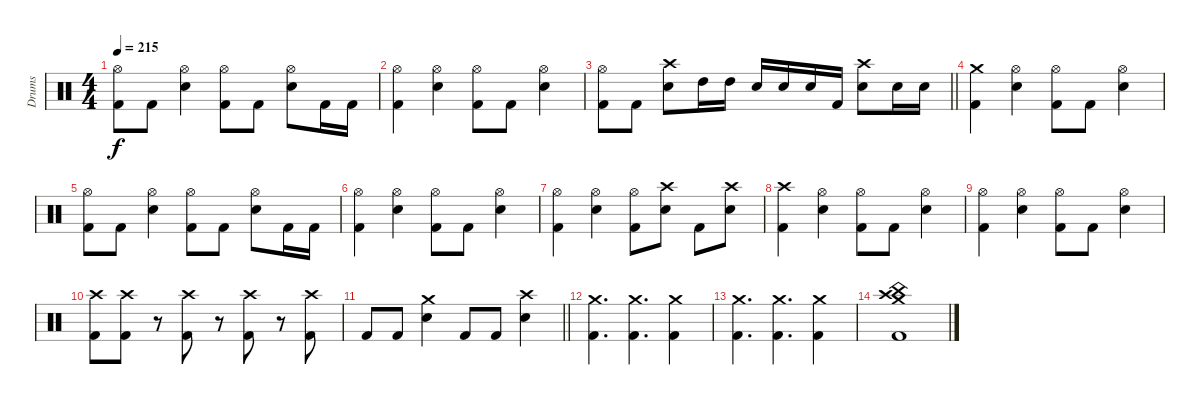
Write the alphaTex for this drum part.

\track ("Drums" "Drums") {instrument percussion}
\staff {score}
\articulation defaults
\ts (4 4)
\tempo 215
\clef neutral
\ks c
("Hi-Hat (open)" "Kick (hit) 2").8{dy f} "Kick (hit) 2".8 ("Hi-Hat (open)" "Snare (hit) 2").4 ("Hi-Hat (open)" "Kick (hit) 2").8 "Kick (hit) 2".8 ("Hi-Hat (open)" "Snare (hit) 2").8 "Kick (hit) 2".16 "Kick (hit) 2".16 |
("Hi-Hat (open)" "Kick (hit) 2").4 ("Hi-Hat (open)" "Snare (hit) 2").4 ("Hi-Hat (open)" "Kick (hit) 2").8 "Kick (hit) 2".8 ("Hi-Hat (open)" "Snare (hit) 2").4 |
\barLineRight lightlight
("Hi-Hat (open)" "Kick (hit) 2").8 "Kick (hit) 2".8 ("Crash high (hit)" "Snare (hit) 2").8 "High Tom (hit)".16 "High Tom (hit)".16 "Snare (hit) 2".16 "Snare (hit) 2".16 "Snare (hit) 2".16 "Kick (hit) 2".16 ("Crash high (hit)" "Snare (hit) 2").8 "Snare (hit) 2".16 "Snare (hit) 2".16 |
("Crash medium (hit)" "Kick (hit) 2").4 ("Hi-Hat (open)" "Snare (hit) 2").4 ("Hi-Hat (open)" "Kick (hit) 2").8 "Kick (hit) 2".8 ("Hi-Hat (open)" "Snare (hit) 2").4 |
("Hi-Hat (open)" "Kick (hit) 2").8 "Kick (hit) 2".8 ("Hi-Hat (open)" "Snare (hit) 2").4 ("Hi-Hat (open)" "Kick (hit) 2").8 "Kick (hit) 2".8 ("Hi-Hat (open)" "Snare (hit) 2").8 "Kick (hit) 2".16 "Kick (hit) 2".16 |
("Hi-Hat (open)" "Kick (hit) 2").4 ("Hi-Hat (open)" "Snare (hit) 2").4 ("Hi-Hat (open)" "Kick (hit) 2").8 "Kick (hit) 2".8 ("Hi-Hat (open)" "Snare (hit) 2").4 |
("Hi-Hat (open)" "Kick (hit) 2").4 ("Hi-Hat (open)" "Snare (hit) 2").4 ("Hi-Hat (open)" "Kick (hit) 2").8 ("Crash high (hit)" "Snare (hit) 2").8 "Kick (hit) 2".8 ("Crash high (hit)" "Snare (hit) 2").8 |
("Crash high (hit)" "Kick (hit) 2").4 ("Hi-Hat (open)" "Snare (hit) 2").4 ("Hi-Hat (open)" "Kick (hit) 2").8 "Kick (hit) 2".8 ("Hi-Hat (open)" "Snare (hit) 2").4 |
("Hi-Hat (open)" "Kick (hit) 2").4 ("Hi-Hat (open)" "Snare (hit) 2").4 ("Hi-Hat (open)" "Kick (hit) 2").8 "Kick (hit) 2".8 ("Hi-Hat (open)" "Snare (hit) 2").4 |
("Crash high (hit)" "Kick (hit) 2").8 ("Crash high (hit)" "Kick (hit) 2").8 r.8 ("Crash high (hit)" "Kick (hit) 2").8 r.8 ("Crash high (hit)" "Kick (hit) 2").8 r.8 ("Crash high (hit)" "Kick (hit) 2").8 |
\barLineRight lightlight "Kick (hit) 2".8 "Kick (hit) 2".8
("Crash medium (hit)" "Snare (hit) 2").4 "Kick (hit) 2".8 "Kick (hit) 2".8 ("Crash high (hit)" "Snare (hit) 2").4 |
("Crash medium (hit)" "Kick (hit) 2").4{d} ("Crash medium (hit)" "Kick (hit) 2").4{d} ("Crash medium (hit)" "Kick (hit) 2").4 |
("Crash medium (hit)" "Kick (hit) 2").4{d} ("Crash medium (hit)" "Kick (hit) 2").4{d} ("Crash medium (hit)" "Kick (hit) 2").4 |
("Crash medium (hit)" "Crash high (hit)" "China (hit)" "Kick (hit) 2").1
